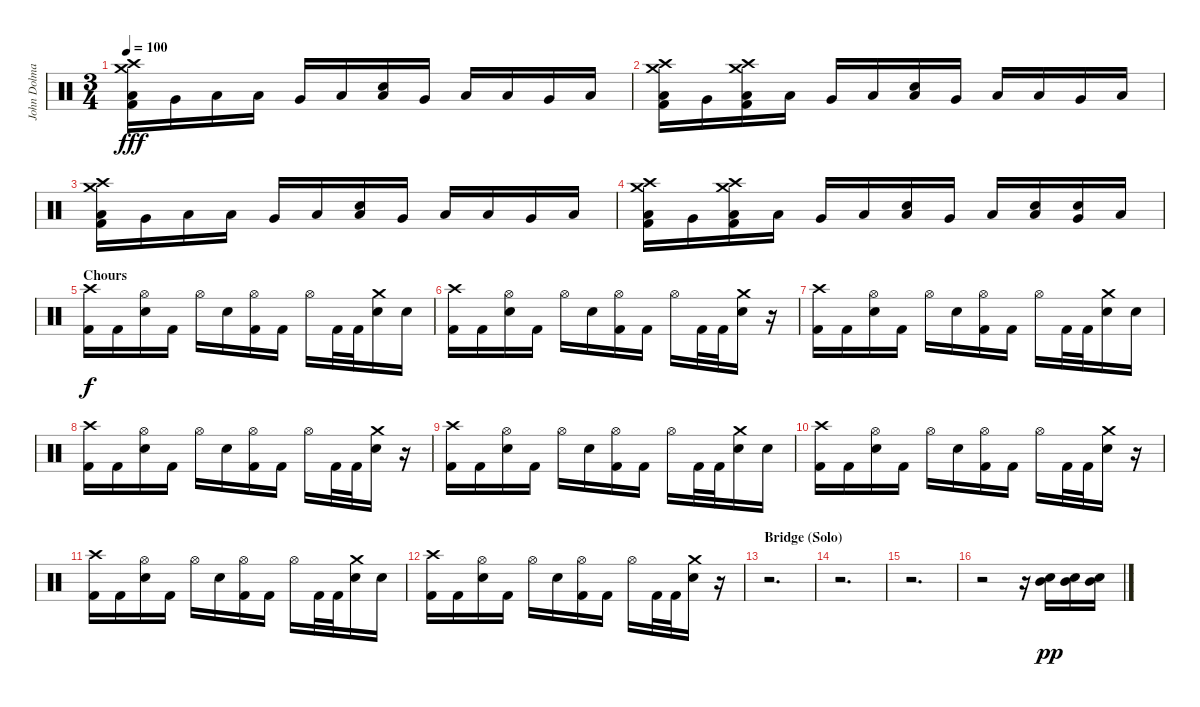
\track ("John Dolmayan" "John Dolma") {instrument percussion}
\staff {score}
\articulation defaults
\ts (3 4)
\tempo 100
\clef neutral
\ks c
("Crash high (hit)" "Crash medium (hit)" "Low Tom (hit)" "Kick (hit) 2").16{dy fff} "Very Low Tom (hit)".16 "Low Floor Tom (hit)".16 "Low Tom (hit)".16 "Very Low Tom (hit)".16 "Low Floor Tom (hit)".16 ("Low Tom (hit)" "Electric Snare (hit)").16 "Very Low Tom (hit)".16 "Low Floor Tom (hit)".16 "Low Tom (hit)".16 "Very Low Tom (hit)".16 "Low Floor Tom (hit)".16 |
("Crash high (hit)" "Crash medium (hit)" "Low Tom (hit)" "Kick (hit) 2").16 "Very Low Tom (hit)".16 ("Crash high (hit)" "Crash medium (hit)" "Low Floor Tom (hit)" "Kick (hit) 2").16 "Low Tom (hit)".16 "Very Low Tom (hit)".16 "Low Floor Tom (hit)".16 ("Low Tom (hit)" "Electric Snare (hit)").16 "Very Low Tom (hit)".16 "Low Floor Tom (hit)".16 "Low Tom (hit)".16 "Very Low Tom (hit)".16 "Low Floor Tom (hit)".16 |
("Crash high (hit)" "Crash medium (hit)" "Low Tom (hit)" "Kick (hit) 2").16 "Very Low Tom (hit)".16 "Low Floor Tom (hit)".16 "Low Tom (hit)".16 "Very Low Tom (hit)".16 "Low Floor Tom (hit)".16 ("Low Tom (hit)" "Electric Snare (hit)").16 "Very Low Tom (hit)".16 "Low Floor Tom (hit)".16 "Low Tom (hit)".16 "Very Low Tom (hit)".16 "Low Floor Tom (hit)".16 |
("Crash high (hit)" "Crash medium (hit)" "Low Tom (hit)" "Kick (hit) 2").16 "Very Low Tom (hit)".16 ("Crash high (hit)" "Crash medium (hit)" "Low Floor Tom (hit)" "Kick (hit) 2").16 "Low Tom (hit)".16 "Very Low Tom (hit)".16 "Low Floor Tom (hit)".16 ("Low Tom (hit)" "Electric Snare (hit)").16 "Very Low Tom (hit)".16 "Low Floor Tom (hit)".16 ("Low Tom (hit)" "Electric Snare (hit)").16 ("Very Low Tom (hit)" "Electric Snare (hit)").16 "Low Floor Tom (hit)".16 |
\section ("" "Chours")
("Crash high (hit)" "Kick (hit) 2").16{dy f} "Kick (hit) 2".16 ("Hi-Hat (open)" "Electric Snare (hit)").16 "Kick (hit) 2".16 "Hi-Hat (open)".16 "Electric Snare (hit)".16 ("Hi-Hat (open)" "Kick (hit) 2").16 "Kick (hit) 2".16 "Hi-Hat (open)".16 "Kick (hit) 2".32 "Kick (hit) 2".32 ("Crash medium (hit)" "Electric Snare (hit)").16 "Electric Snare (hit)".16 |
("Crash high (hit)" "Kick (hit) 2").16 "Kick (hit) 2".16 ("Hi-Hat (open)" "Electric Snare (hit)").16 "Kick (hit) 2".16 "Hi-Hat (open)".16 "Electric Snare (hit)".16 ("Hi-Hat (open)" "Kick (hit) 2").16 "Kick (hit) 2".16 "Hi-Hat (open)".16 "Kick (hit) 2".32 "Kick (hit) 2".32 ("Crash medium (hit)" "Electric Snare (hit)").16 r.16 |
("Crash high (hit)" "Kick (hit) 2").16 "Kick (hit) 2".16 ("Hi-Hat (open)" "Electric Snare (hit)").16 "Kick (hit) 2".16 "Hi-Hat (open)".16 "Electric Snare (hit)".16 ("Hi-Hat (open)" "Kick (hit) 2").16 "Kick (hit) 2".16 "Hi-Hat (open)".16 "Kick (hit) 2".32 "Kick (hit) 2".32 ("Crash medium (hit)" "Electric Snare (hit)").16 "Electric Snare (hit)".16 |
("Crash high (hit)" "Kick (hit) 2").16 "Kick (hit) 2".16 ("Hi-Hat (open)" "Electric Snare (hit)").16 "Kick (hit) 2".16 "Hi-Hat (open)".16 "Electric Snare (hit)".16 ("Hi-Hat (open)" "Kick (hit) 2").16 "Kick (hit) 2".16 "Hi-Hat (open)".16 "Kick (hit) 2".32 "Kick (hit) 2".32 ("Crash medium (hit)" "Electric Snare (hit)").16 r.16 |
("Crash high (hit)" "Kick (hit) 2").16 "Kick (hit) 2".16 ("Hi-Hat (open)" "Electric Snare (hit)").16 "Kick (hit) 2".16 "Hi-Hat (open)".16 "Electric Snare (hit)".16 ("Hi-Hat (open)" "Kick (hit) 2").16 "Kick (hit) 2".16 "Hi-Hat (open)".16 "Kick (hit) 2".32 "Kick (hit) 2".32 ("Crash medium (hit)" "Electric Snare (hit)").16 "Electric Snare (hit)".16 |
("Crash high (hit)" "Kick (hit) 2").16 "Kick (hit) 2".16 ("Hi-Hat (open)" "Electric Snare (hit)").16 "Kick (hit) 2".16 "Hi-Hat (open)".16 "Electric Snare (hit)".16 ("Hi-Hat (open)" "Kick (hit) 2").16 "Kick (hit) 2".16 "Hi-Hat (open)".16 "Kick (hit) 2".32 "Kick (hit) 2".32 ("Crash medium (hit)" "Electric Snare (hit)").16 r.16 |
("Crash high (hit)" "Kick (hit) 2").16 "Kick (hit) 2".16 ("Hi-Hat (open)" "Electric Snare (hit)").16 "Kick (hit) 2".16 "Hi-Hat (open)".16 "Electric Snare (hit)".16 ("Hi-Hat (open)" "Kick (hit) 2").16 "Kick (hit) 2".16 "Hi-Hat (open)".16 "Kick (hit) 2".32 "Kick (hit) 2".32 ("Crash medium (hit)" "Electric Snare (hit)").16 "Electric Snare (hit)".16 |
("Crash high (hit)" "Kick (hit) 2").16 "Kick (hit) 2".16 ("Hi-Hat (open)" "Electric Snare (hit)").16 "Kick (hit) 2".16 "Hi-Hat (open)".16 "Electric Snare (hit)".16 ("Hi-Hat (open)" "Kick (hit) 2").16 "Kick (hit) 2".16 "Hi-Hat (open)".16 "Kick (hit) 2".32 "Kick (hit) 2".32 ("Crash medium (hit)" "Electric Snare (hit)").16 r.16 |
\section ("" "Bridge (Solo)")
r.2{d} |
r.2{d} |
r.2{d} |
r.2 r.16 ("Mid Tom (hit)" "Electric Snare (hit)").16{dy pp} ("Mid Tom (hit)" "Electric Snare (hit)").16 ("Mid Tom (hit)" "Electric Snare (hit)").16
